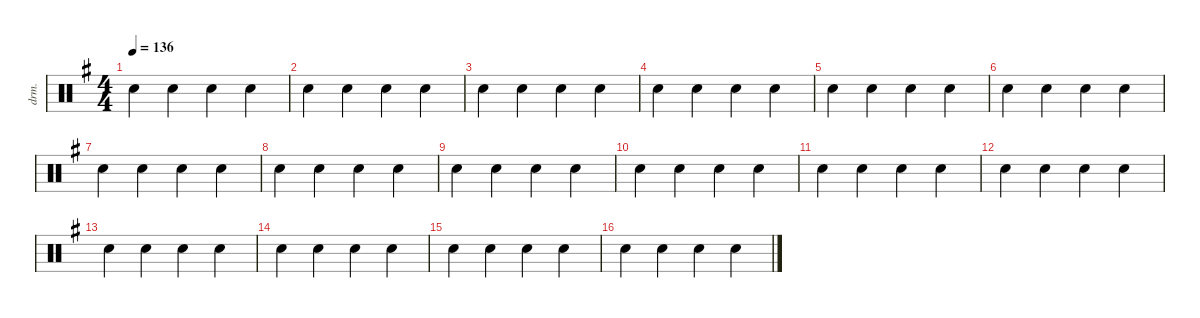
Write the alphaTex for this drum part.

\defaultSystemsLayout 4
\hideDynamics
\bracketExtendMode nobrackets
\otherSystemsTrackNameOrientation horizontal
\track ("Percussions" "drm.") {instrument percussion}
\staff {score}
\articulation defaults
\ts (4 4)
\tempo 136
\clef neutral
\ks g "Hand Clap (hit)"{acc forcenatural}.4{dy f beam Down} "Hand Clap (hit)"{acc forcenatural}.4{beam Down} "Hand Clap (hit)"{acc forcenatural}.4{beam Down} "Hand Clap (hit)"{acc forcenatural}.4{beam Down}
|
"Hand Clap (hit)"{acc forcenatural}.4{beam Down} "Hand Clap (hit)"{acc forcenatural}.4{beam Down} "Hand Clap (hit)"{acc forcenatural}.4{beam Down} "Hand Clap (hit)"{acc forcenatural}.4{beam Down} |
"Hand Clap (hit)"{acc forcenatural}.4{beam Down} "Hand Clap (hit)"{acc forcenatural}.4{beam Down} "Hand Clap (hit)"{acc forcenatural}.4{beam Down} "Hand Clap (hit)"{acc forcenatural}.4{beam Down} |
"Hand Clap (hit)"{acc forcenatural}.4{beam Down} "Hand Clap (hit)"{acc forcenatural}.4{beam Down} "Hand Clap (hit)"{acc forcenatural}.4{beam Down} "Hand Clap (hit)"{acc forcenatural}.4{beam Down} |
"Hand Clap (hit)"{acc forcenatural}.4{beam Down} "Hand Clap (hit)"{acc forcenatural}.4{beam Down} "Hand Clap (hit)"{acc forcenatural}.4{beam Down} "Hand Clap (hit)"{acc forcenatural}.4{beam Down} |
"Hand Clap (hit)"{acc forcenatural}.4{beam Down} "Hand Clap (hit)"{acc forcenatural}.4{beam Down} "Hand Clap (hit)"{acc forcenatural}.4{beam Down} "Hand Clap (hit)"{acc forcenatural}.4{beam Down} |
"Hand Clap (hit)"{acc forcenatural}.4{beam Down} "Hand Clap (hit)"{acc forcenatural}.4{beam Down} "Hand Clap (hit)"{acc forcenatural}.4{beam Down} "Hand Clap (hit)"{acc forcenatural}.4{beam Down} |
"Hand Clap (hit)"{acc forcenatural}.4{beam Down} "Hand Clap (hit)"{acc forcenatural}.4{beam Down} "Hand Clap (hit)"{acc forcenatural}.4{beam Down} "Hand Clap (hit)"{acc forcenatural}.4{beam Down} |
"Hand Clap (hit)"{acc forcenatural}.4{beam Down} "Hand Clap (hit)"{acc forcenatural}.4{beam Down} "Hand Clap (hit)"{acc forcenatural}.4{beam Down} "Hand Clap (hit)"{acc forcenatural}.4{beam Down} |
"Hand Clap (hit)"{acc forcenatural}.4{beam Down} "Hand Clap (hit)"{acc forcenatural}.4{beam Down} "Hand Clap (hit)"{acc forcenatural}.4{beam Down} "Hand Clap (hit)"{acc forcenatural}.4{beam Down} |
"Hand Clap (hit)"{acc forcenatural}.4{beam Down} "Hand Clap (hit)"{acc forcenatural}.4{beam Down} "Hand Clap (hit)"{acc forcenatural}.4{beam Down} "Hand Clap (hit)"{acc forcenatural}.4{beam Down} |
"Hand Clap (hit)"{acc forcenatural}.4{beam Down} "Hand Clap (hit)"{acc forcenatural}.4{beam Down} "Hand Clap (hit)"{acc forcenatural}.4{beam Down} "Hand Clap (hit)"{acc forcenatural}.4{beam Down} |
"Hand Clap (hit)"{acc forcenatural}.4{beam Down} "Hand Clap (hit)"{acc forcenatural}.4{beam Down} "Hand Clap (hit)"{acc forcenatural}.4{beam Down} "Hand Clap (hit)"{acc forcenatural}.4{beam Down} |
"Hand Clap (hit)"{acc forcenatural}.4{beam Down} "Hand Clap (hit)"{acc forcenatural}.4{beam Down} "Hand Clap (hit)"{acc forcenatural}.4{beam Down} "Hand Clap (hit)"{acc forcenatural}.4{beam Down} |
"Hand Clap (hit)"{acc forcenatural}.4{beam Down} "Hand Clap (hit)"{acc forcenatural}.4{beam Down} "Hand Clap (hit)"{acc forcenatural}.4{beam Down} "Hand Clap (hit)"{acc forcenatural}.4{beam Down} |
"Hand Clap (hit)"{acc forcenatural}.4{beam Down} "Hand Clap (hit)"{acc forcenatural}.4{beam Down} "Hand Clap (hit)"{acc forcenatural}.4{beam Down} "Hand Clap (hit)"{acc forcenatural}.4{beam Down}
